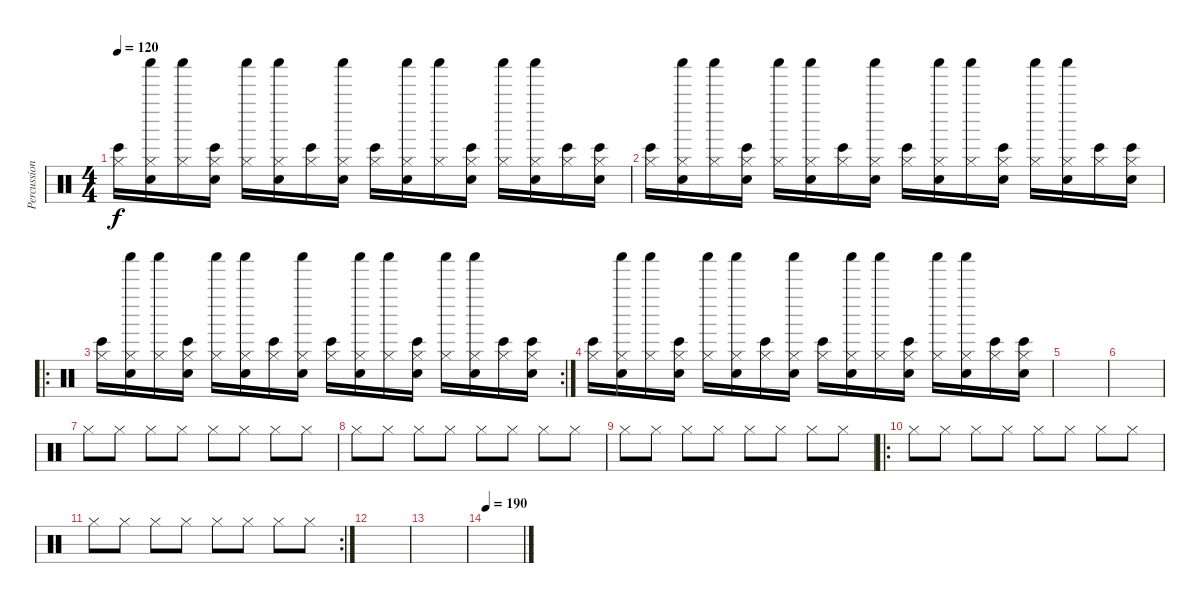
\track ("Percussion" "Percussion") {instrument percussion}
\staff {score}
\articulation defaults
\ts (4 4)
\tempo 120
\clef neutral
\ks c
("Bongo High (hit)" "Hi-Hat (closed)").16{dy f balance 0} ("Hand Clap (hit)" "Shaker (hit)" "Hi-Hat (closed)").16{balance 1} ("Shaker (hit)" "Hi-Hat (closed)").16{balance 2} ("Hand Clap (hit)" "Bongo High (hit)" "Hi-Hat (closed)").16{balance 3} ("Shaker (hit)" "Hi-Hat (closed)").16{balance 4} ("Hand Clap (hit)" "Shaker (hit)" "Hi-Hat (closed)").16{balance 5} ("Bongo High (hit)" "Hi-Hat (closed)").16{balance 6} ("Hand Clap (hit)" "Shaker (hit)" "Hi-Hat (closed)").16{balance 7} ("Bongo High (hit)" "Hi-Hat (closed)").16{balance 8} ("Hand Clap (hit)" "Shaker (hit)" "Hi-Hat (closed)").16{balance 9} ("Shaker (hit)" "Hi-Hat (closed)").16{balance 10} ("Hand Clap (hit)" "Bongo High (hit)" "Hi-Hat (closed)").16{balance 11} ("Shaker (hit)" "Hi-Hat (closed)").16{balance 12} ("Hand Clap (hit)" "Shaker (hit)" "Hi-Hat (closed)").16{balance 13} ("Bongo High (hit)" "Hi-Hat (closed)").16{balance 14} ("Hand Clap (hit)" "Bongo High (hit)" "Hi-Hat (closed)").16{balance 16} |
("Bongo High (hit)" "Hi-Hat (closed)").16{balance 0} ("Hand Clap (hit)" "Shaker (hit)" "Hi-Hat (closed)").16{balance 1} ("Shaker (hit)" "Hi-Hat (closed)").16{balance 2} ("Hand Clap (hit)" "Bongo High (hit)" "Hi-Hat (closed)").16{balance 3} ("Shaker (hit)" "Hi-Hat (closed)").16{balance 4} ("Hand Clap (hit)" "Shaker (hit)" "Hi-Hat (closed)").16{balance 5} ("Bongo High (hit)" "Hi-Hat (closed)").16{balance 6} ("Hand Clap (hit)" "Shaker (hit)" "Hi-Hat (closed)").16{balance 7} ("Bongo High (hit)" "Hi-Hat (closed)").16{balance 8} ("Hand Clap (hit)" "Shaker (hit)" "Hi-Hat (closed)").16{balance 9} ("Shaker (hit)" "Hi-Hat (closed)").16{balance 10} ("Hand Clap (hit)" "Bongo High (hit)" "Hi-Hat (closed)").16{balance 11} ("Shaker (hit)" "Hi-Hat (closed)").16{balance 12} ("Hand Clap (hit)" "Shaker (hit)" "Hi-Hat (closed)").16{balance 13} ("Bongo High (hit)" "Hi-Hat (closed)").16{balance 14} ("Hand Clap (hit)" "Bongo High (hit)" "Hi-Hat (closed)").16{balance 16} |
\ro
\rc 2
("Bongo High (hit)" "Hi-Hat (closed)").16{balance 0} ("Hand Clap (hit)" "Shaker (hit)" "Hi-Hat (closed)").16{balance 1} ("Shaker (hit)" "Hi-Hat (closed)").16{balance 2} ("Hand Clap (hit)" "Bongo High (hit)" "Hi-Hat (closed)").16{balance 3} ("Shaker (hit)" "Hi-Hat (closed)").16{balance 4} ("Hand Clap (hit)" "Shaker (hit)" "Hi-Hat (closed)").16{balance 5} ("Bongo High (hit)" "Hi-Hat (closed)").16{balance 6} ("Hand Clap (hit)" "Shaker (hit)" "Hi-Hat (closed)").16{balance 7} ("Bongo High (hit)" "Hi-Hat (closed)").16{balance 8} ("Hand Clap (hit)" "Shaker (hit)" "Hi-Hat (closed)").16{balance 9} ("Shaker (hit)" "Hi-Hat (closed)").16{balance 10} ("Hand Clap (hit)" "Bongo High (hit)" "Hi-Hat (closed)").16{balance 11} ("Shaker (hit)" "Hi-Hat (closed)").16{balance 12} ("Hand Clap (hit)" "Shaker (hit)" "Hi-Hat (closed)").16{balance 13} ("Bongo High (hit)" "Hi-Hat (closed)").16{balance 14} ("Hand Clap (hit)" "Bongo High (hit)" "Hi-Hat (closed)").16{balance 16} |
("Bongo High (hit)" "Hi-Hat (closed)").16{balance 0} ("Hand Clap (hit)" "Shaker (hit)" "Hi-Hat (closed)").16{balance 1} ("Shaker (hit)" "Hi-Hat (closed)").16{balance 2} ("Hand Clap (hit)" "Bongo High (hit)" "Hi-Hat (closed)").16{balance 3} ("Shaker (hit)" "Hi-Hat (closed)").16{balance 4} ("Hand Clap (hit)" "Shaker (hit)" "Hi-Hat (closed)").16{balance 5} ("Bongo High (hit)" "Hi-Hat (closed)").16{balance 6} ("Hand Clap (hit)" "Shaker (hit)" "Hi-Hat (closed)").16{balance 7} ("Bongo High (hit)" "Hi-Hat (closed)").16{balance 8} ("Hand Clap (hit)" "Shaker (hit)" "Hi-Hat (closed)").16{balance 9} ("Shaker (hit)" "Hi-Hat (closed)").16{balance 10} ("Hand Clap (hit)" "Bongo High (hit)" "Hi-Hat (closed)").16{balance 11} ("Shaker (hit)" "Hi-Hat (closed)").16{balance 12} ("Hand Clap (hit)" "Shaker (hit)" "Hi-Hat (closed)").16{balance 13} ("Bongo High (hit)" "Hi-Hat (closed)").16{balance 14} ("Hand Clap (hit)" "Bongo High (hit)" "Hi-Hat (closed)").16{balance 16} |
|
|
"Hi-Hat (closed)".8 "Hi-Hat (closed)".8 "Hi-Hat (closed)".8 "Hi-Hat (closed)".8 "Hi-Hat (closed)".8 "Hi-Hat (closed)".8 "Hi-Hat (closed)".8 "Hi-Hat (closed)".8 |
"Hi-Hat (closed)".8 "Hi-Hat (closed)".8 "Hi-Hat (closed)".8 "Hi-Hat (closed)".8 "Hi-Hat (closed)".8 "Hi-Hat (closed)".8 "Hi-Hat (closed)".8 "Hi-Hat (closed)".8 |
"Hi-Hat (closed)".8 "Hi-Hat (closed)".8 "Hi-Hat (closed)".8 "Hi-Hat (closed)".8 "Hi-Hat (closed)".8 "Hi-Hat (closed)".8 "Hi-Hat (closed)".8 "Hi-Hat (closed)".8 |
\ro "Hi-Hat (closed)".8 "Hi-Hat (closed)".8 "Hi-Hat (closed)".8 "Hi-Hat (closed)".8 "Hi-Hat (closed)".8 "Hi-Hat (closed)".8 "Hi-Hat (closed)".8 "Hi-Hat (closed)".8
|
\rc 2 "Hi-Hat (closed)".8 "Hi-Hat (closed)".8 "Hi-Hat (closed)".8 "Hi-Hat (closed)".8 "Hi-Hat (closed)".8 "Hi-Hat (closed)".8 "Hi-Hat (closed)".8 "Hi-Hat (closed)".8
|
|
|
\tempo 190
